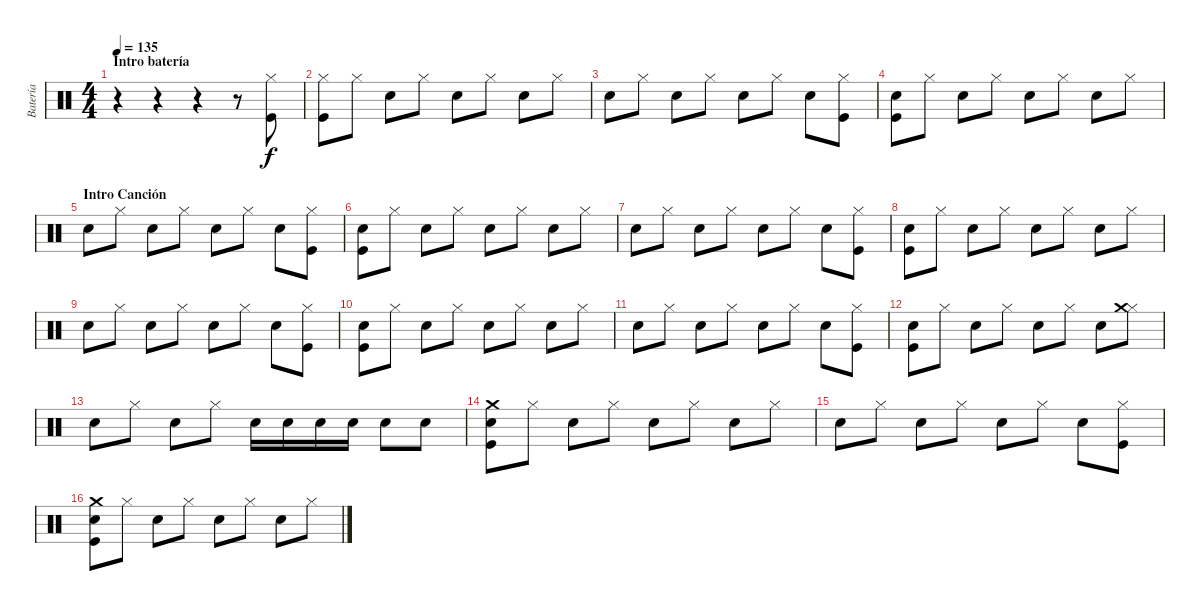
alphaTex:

\track ("Batería" "Batería") {instrument percussion}
\staff {score}
\articulation defaults
\ts (4 4)
\section ("" "Intro batería")
\tempo 135
\clef neutral
\ks c
r.4{dy f} r.4 r.4 r.8 ("Kick (hit)" "Hi-Hat (closed)").8 |
("Kick (hit)" "Hi-Hat (closed)").8 "Hi-Hat (closed)".8 "Snare (hit) 2".8 "Hi-Hat (closed)".8 "Snare (hit) 2".8 "Hi-Hat (closed)".8 "Snare (hit) 2".8 "Hi-Hat (closed)".8 |
"Snare (hit) 2".8 "Hi-Hat (closed)".8 "Snare (hit) 2".8 "Hi-Hat (closed)".8 "Snare (hit) 2".8 "Hi-Hat (closed)".8 "Snare (hit) 2".8 ("Hi-Hat (closed)" "Kick (hit)").8 |
("Kick (hit)" "Snare (hit) 2").8 "Hi-Hat (closed)".8 "Snare (hit) 2".8 "Hi-Hat (closed)".8 "Snare (hit) 2".8 "Hi-Hat (closed)".8 "Snare (hit) 2".8 "Hi-Hat (closed)".8 |
\section ("" "Intro Canción")
"Snare (hit) 2".8 "Hi-Hat (closed)".8 "Snare (hit) 2".8 "Hi-Hat (closed)".8 "Snare (hit) 2".8 "Hi-Hat (closed)".8 "Snare (hit) 2".8 ("Kick (hit)" "Hi-Hat (closed)").8 |
("Kick (hit)" "Snare (hit) 2").8 "Hi-Hat (closed)".8 "Snare (hit) 2".8 "Hi-Hat (closed)".8 "Snare (hit) 2".8 "Hi-Hat (closed)".8 "Snare (hit) 2".8 "Hi-Hat (closed)".8 |
"Snare (hit) 2".8 "Hi-Hat (closed)".8 "Snare (hit) 2".8 "Hi-Hat (closed)".8 "Snare (hit) 2".8 "Hi-Hat (closed)".8 "Snare (hit) 2".8 ("Kick (hit)" "Hi-Hat (closed)").8 |
("Kick (hit)" "Snare (hit) 2").8 "Hi-Hat (closed)".8 "Snare (hit) 2".8 "Hi-Hat (closed)".8 "Snare (hit) 2".8 "Hi-Hat (closed)".8 "Snare (hit) 2".8 "Hi-Hat (closed)".8 |
"Snare (hit) 2".8 "Hi-Hat (closed)".8 "Snare (hit) 2".8 "Hi-Hat (closed)".8 "Snare (hit) 2".8 "Hi-Hat (closed)".8 "Snare (hit) 2".8 ("Kick (hit)" "Hi-Hat (closed)").8 |
("Kick (hit)" "Snare (hit) 2").8 "Hi-Hat (closed)".8 "Snare (hit) 2".8 "Hi-Hat (closed)".8 "Snare (hit) 2".8 "Hi-Hat (closed)".8 "Snare (hit) 2".8 "Hi-Hat (closed)".8 |
"Snare (hit) 2".8 "Hi-Hat (closed)".8 "Snare (hit) 2".8 "Hi-Hat (closed)".8 "Snare (hit) 2".8 "Hi-Hat (closed)".8 "Snare (hit) 2".8 ("Kick (hit)" "Hi-Hat (closed)").8 |
("Kick (hit)" "Snare (hit) 2").8 "Hi-Hat (closed)".8 "Snare (hit) 2".8 "Hi-Hat (closed)".8 "Snare (hit) 2".8 "Hi-Hat (closed)".8 "Snare (hit) 2".8 ("Hi-Hat (closed)" "Crash medium (hit)").8 |
"Snare (hit) 2".8 "Hi-Hat (closed)".8 "Snare (hit) 2".8 "Hi-Hat (closed)".8 "Snare (hit) 2".16 "Snare (hit) 2".16 "Snare (hit) 2".16 "Snare (hit) 2".16 "Snare (hit) 2".8 "Snare (hit) 2".8 |
("Kick (hit)" "Snare (hit) 2" "Crash medium (hit)").8 "Hi-Hat (closed)".8 "Snare (hit) 2".8 "Hi-Hat (closed)".8 "Snare (hit) 2".8 "Hi-Hat (closed)".8 "Snare (hit) 2".8 "Hi-Hat (closed)".8 |
"Snare (hit) 2".8 "Hi-Hat (closed)".8 "Snare (hit) 2".8 "Hi-Hat (closed)".8 "Snare (hit) 2".8 "Hi-Hat (closed)".8 "Snare (hit) 2".8 ("Kick (hit)" "Hi-Hat (closed)").8 |
("Kick (hit)" "Snare (hit) 2" "Crash medium (hit)").8 "Hi-Hat (closed)".8 "Snare (hit) 2".8 "Hi-Hat (closed)".8 "Snare (hit) 2".8 "Hi-Hat (closed)".8 "Snare (hit) 2".8 "Hi-Hat (closed)".8
